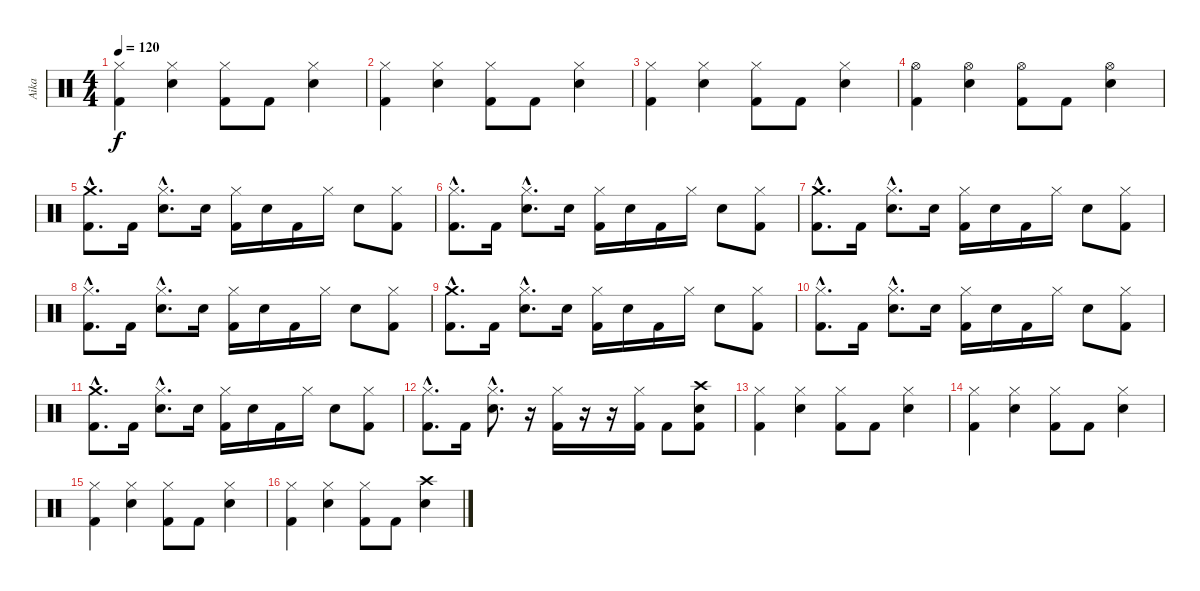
\track ("Aika" "Aika") {instrument percussion}
\staff {score}
\articulation defaults
\ts (4 4)
\tempo 120
\clef neutral
\ks c
("Hi-Hat (closed)" "Kick (hit) 2").4{dy f} ("Hi-Hat (closed)" "Snare (hit) 2").4 ("Hi-Hat (closed)" "Kick (hit) 2").8 "Kick (hit) 2".8 ("Hi-Hat (closed)" "Snare (hit) 2").4 |
("Hi-Hat (closed)" "Kick (hit) 2").4 ("Hi-Hat (closed)" "Snare (hit) 2").4 ("Hi-Hat (closed)" "Kick (hit) 2").8 "Kick (hit) 2".8 ("Hi-Hat (closed)" "Snare (hit) 2").4 |
("Hi-Hat (closed)" "Kick (hit) 2").4 ("Hi-Hat (closed)" "Snare (hit) 2").4 ("Hi-Hat (closed)" "Kick (hit) 2").8 "Kick (hit) 2".8 ("Hi-Hat (closed)" "Snare (hit) 2").4 |
("Hi-Hat (open)" "Kick (hit) 2").4 ("Hi-Hat (open)" "Snare (hit) 2").4 ("Hi-Hat (open)" "Kick (hit) 2").8 "Kick (hit) 2".8 ("Hi-Hat (open)" "Snare (hit) 2").4 |
("Crash medium (hit)"{hac} "Kick (hit) 2"{hac}).8{d} "Kick (hit) 2".16 ("Hi-Hat (closed)"{hac} "Snare (hit) 2"{hac}).8{d} "Snare (hit) 2".16 ("Hi-Hat (closed)" "Kick (hit) 2").16 "Snare (hit) 2".16 "Kick (hit) 2".16 "Hi-Hat (closed)".16 "Snare (hit) 2".8 ("Hi-Hat (closed)" "Kick (hit) 2").8 |
("Hi-Hat (closed)"{hac} "Kick (hit) 2"{hac}).8{d} "Kick (hit) 2".16 ("Hi-Hat (closed)"{hac} "Snare (hit) 2"{hac}).8{d} "Snare (hit) 2".16 ("Hi-Hat (closed)" "Kick (hit) 2").16 "Snare (hit) 2".16 "Kick (hit) 2".16 "Hi-Hat (closed)".16 "Snare (hit) 2".8 ("Hi-Hat (closed)" "Kick (hit) 2").8 |
("Crash medium (hit)"{hac} "Kick (hit) 2"{hac}).8{d} "Kick (hit) 2".16 ("Hi-Hat (closed)"{hac} "Snare (hit) 2"{hac}).8{d} "Snare (hit) 2".16 ("Hi-Hat (closed)" "Kick (hit) 2").16 "Snare (hit) 2".16 "Kick (hit) 2".16 "Hi-Hat (closed)".16 "Snare (hit) 2".8 ("Hi-Hat (closed)" "Kick (hit) 2").8 |
("Hi-Hat (closed)"{hac} "Kick (hit) 2"{hac}).8{d} "Kick (hit) 2".16 ("Hi-Hat (closed)"{hac} "Snare (hit) 2"{hac}).8{d} "Snare (hit) 2".16 ("Hi-Hat (closed)" "Kick (hit) 2").16 "Snare (hit) 2".16 "Kick (hit) 2".16 "Hi-Hat (closed)".16 "Snare (hit) 2".8 ("Hi-Hat (closed)" "Kick (hit) 2").8 |
("Crash medium (hit)"{hac} "Kick (hit) 2"{hac}).8{d} "Kick (hit) 2".16 ("Hi-Hat (closed)"{hac} "Snare (hit) 2"{hac}).8{d} "Snare (hit) 2".16 ("Hi-Hat (closed)" "Kick (hit) 2").16 "Snare (hit) 2".16 "Kick (hit) 2".16 "Hi-Hat (closed)".16 "Snare (hit) 2".8 ("Hi-Hat (closed)" "Kick (hit) 2").8 |
("Hi-Hat (closed)"{hac} "Kick (hit) 2"{hac}).8{d} "Kick (hit) 2".16 ("Hi-Hat (closed)"{hac} "Snare (hit) 2"{hac}).8{d} "Snare (hit) 2".16 ("Hi-Hat (closed)" "Kick (hit) 2").16 "Snare (hit) 2".16 "Kick (hit) 2".16 "Hi-Hat (closed)".16 "Snare (hit) 2".8 ("Hi-Hat (closed)" "Kick (hit) 2").8 |
("Crash medium (hit)"{hac} "Kick (hit) 2"{hac}).8{d} "Kick (hit) 2".16 ("Hi-Hat (closed)"{hac} "Snare (hit) 2"{hac}).8{d} "Snare (hit) 2".16 ("Hi-Hat (closed)" "Kick (hit) 2").16 "Snare (hit) 2".16 "Kick (hit) 2".16 "Hi-Hat (closed)".16 "Snare (hit) 2".8 ("Hi-Hat (closed)" "Kick (hit) 2").8 |
("Hi-Hat (closed)"{hac} "Kick (hit) 2"{hac}).8{d} "Kick (hit) 2".16 ("Hi-Hat (closed)"{hac} "Snare (hit) 2"{hac}).8{d} r.16 ("Hi-Hat (closed)" "Kick (hit) 2").16 r.16 r.16 ("Hi-Hat (closed)" "Kick (hit) 2").16 "Kick (hit) 2".8 ("Crash high (hit)" "Snare (hit) 2" "Kick (hit) 2").8 |
("Hi-Hat (closed)" "Kick (hit) 2").4 ("Hi-Hat (closed)" "Snare (hit) 2").4 ("Hi-Hat (closed)" "Kick (hit) 2").8 "Kick (hit) 2".8 ("Hi-Hat (closed)" "Snare (hit) 2").4 |
("Hi-Hat (closed)" "Kick (hit) 2").4 ("Hi-Hat (closed)" "Snare (hit) 2").4 ("Hi-Hat (closed)" "Kick (hit) 2").8 "Kick (hit) 2".8 ("Hi-Hat (closed)" "Snare (hit) 2").4 |
("Hi-Hat (closed)" "Kick (hit) 2").4 ("Hi-Hat (closed)" "Snare (hit) 2").4 ("Hi-Hat (closed)" "Kick (hit) 2").8 "Kick (hit) 2".8 ("Hi-Hat (closed)" "Snare (hit) 2").4 |
("Hi-Hat (closed)" "Kick (hit) 2").4 ("Hi-Hat (closed)" "Snare (hit) 2").4 ("Hi-Hat (closed)" "Kick (hit) 2").8 "Kick (hit) 2".8 ("Crash high (hit)" "Snare (hit) 2").4
